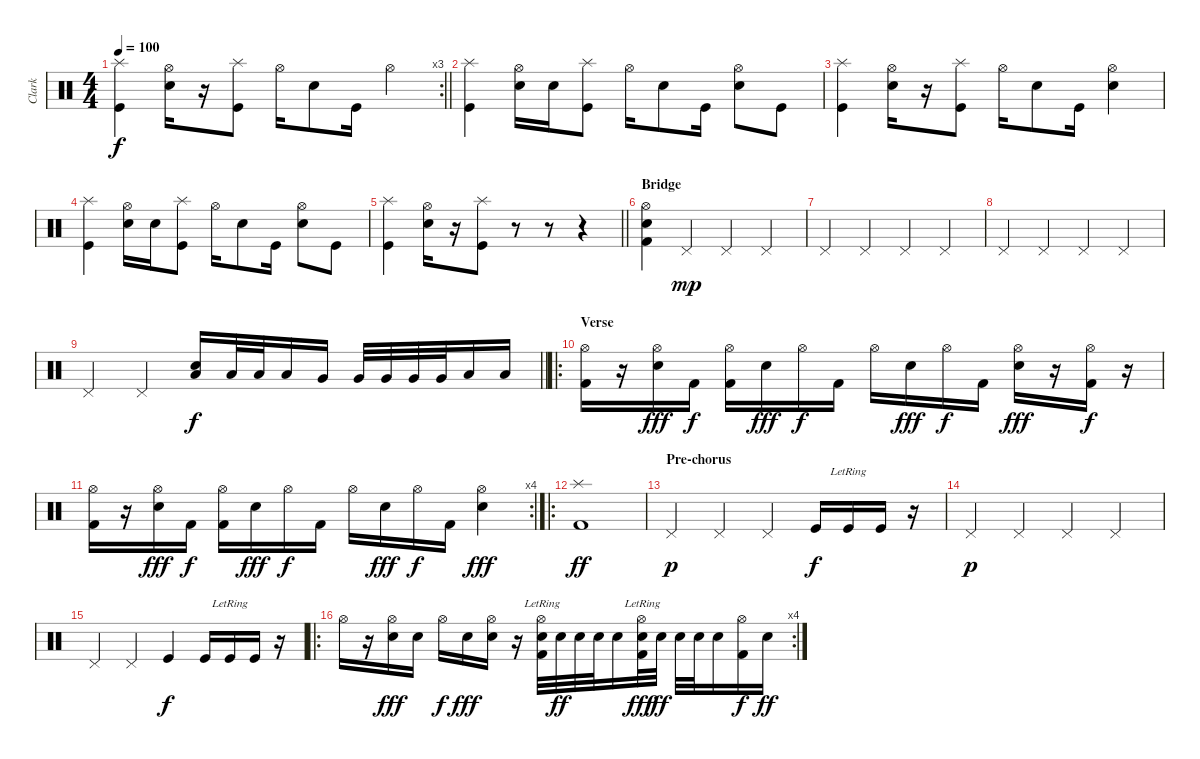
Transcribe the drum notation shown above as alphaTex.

\track ("Clark" "Clark") {instrument percussion}
\staff {score}
\articulation defaults
\rc 3
\ts (4 4)
\tempo 100
\clef neutral
\barLineRight lightlight
\ks c
("Splash (hit)" "Kick (hit)").4{dy f} ("Hi-Hat (open)" "Electric Snare (hit)").16 r.16 ("Splash (hit)" "Kick (hit)").8 "Hi-Hat (open)".16 "Electric Snare (hit)".8 "Kick (hit)".16 "Hi-Hat (open)".4 |
("Splash (hit)" "Kick (hit)").4 ("Hi-Hat (open)" "Electric Snare (hit)").16 "Electric Snare (hit)".16 ("Splash (hit)" "Kick (hit)").8 "Hi-Hat (open)".16 "Electric Snare (hit)".8 "Kick (hit)".16 ("Hi-Hat (open)" "Electric Snare (hit)").8 "Kick (hit)".8 |
("Splash (hit)" "Kick (hit)").4 ("Hi-Hat (open)" "Electric Snare (hit)").16 r.16 ("Splash (hit)" "Kick (hit)").8 "Hi-Hat (open)".16 "Electric Snare (hit)".8 "Kick (hit)".16 ("Hi-Hat (open)" "Electric Snare (hit)").4 |
("Splash (hit)" "Kick (hit)").4 ("Hi-Hat (open)" "Electric Snare (hit)").16 "Electric Snare (hit)".16 ("Splash (hit)" "Kick (hit)").8 "Hi-Hat (open)".16 "Electric Snare (hit)".8 "Kick (hit)".16 ("Hi-Hat (open)" "Electric Snare (hit)").8 "Kick (hit)".8 |
\barLineRight lightlight
("Splash (hit)" "Kick (hit)").4 ("Hi-Hat (open)" "Electric Snare (hit)").16 r.16 ("Splash (hit)" "Kick (hit)").8 r.8 r.8 r.4 |
\section ("" "Bridge")
("Hi-Hat (open)" "Electric Snare (hit)" "Kick (hit) 2").4 "Pedal Hi-Hat (hit)".4{dy mp} "Pedal Hi-Hat (hit)".4 "Pedal Hi-Hat (hit)".4 |
"Pedal Hi-Hat (hit)".4 "Pedal Hi-Hat (hit)".4 "Pedal Hi-Hat (hit)".4 "Pedal Hi-Hat (hit)".4 |
"Pedal Hi-Hat (hit)".4 "Pedal Hi-Hat (hit)".4 "Pedal Hi-Hat (hit)".4 "Pedal Hi-Hat (hit)".4 |
\barLineRight lightlight "Pedal Hi-Hat (hit)".4 "Pedal Hi-Hat (hit)".4
("Electric Snare (hit)" "Low Tom (hit)").16{dy f} "Low Tom (hit)".32 "Low Tom (hit)".32 "Low Tom (hit)".16 "Very Low Tom (hit)".16 "Very Low Tom (hit)".32 "Very Low Tom (hit)".32 "Very Low Tom (hit)".32 "Very Low Tom (hit)".32 "Low Floor Tom (hit)".16 "Low Floor Tom (hit)".16 |
\ro
\section ("" "Verse")
("Hi-Hat (open)" "Kick (hit) 2").16 r.16 ("Hi-Hat (open)" "Electric Snare (hit)").16{dy fff} "Kick (hit) 2".16{dy f} ("Hi-Hat (open)" "Kick (hit) 2").16 "Electric Snare (hit)".16{dy fff} "Hi-Hat (open)".16{dy f} "Kick (hit) 2".16 "Hi-Hat (open)".16 "Electric Snare (hit)".16{dy fff} "Hi-Hat (open)".16{dy f} "Kick (hit) 2".16 ("Hi-Hat (open)" "Electric Snare (hit)").16{dy fff} r.16 ("Hi-Hat (open)" "Kick (hit) 2").16{dy f} r.16 |
\rc 4
("Hi-Hat (open)" "Kick (hit) 2").16 r.16 ("Hi-Hat (open)" "Electric Snare (hit)").16{dy fff} "Kick (hit) 2".16{dy f} ("Hi-Hat (open)" "Kick (hit) 2").16 "Electric Snare (hit)".16{dy fff} "Hi-Hat (open)".16{dy f} "Kick (hit) 2".16 "Hi-Hat (open)".16 "Electric Snare (hit)".16{dy fff} "Hi-Hat (open)".16{dy f} "Kick (hit) 2".16 ("Hi-Hat (open)" "Electric Snare (hit)").4{dy fff} |
\ro
("Splash (hit)" "Kick (hit) 2").1{dy ff} |
\section ("" "Pre-chorus")
"Pedal Hi-Hat (hit)".4{dy p} "Pedal Hi-Hat (hit)".4 "Pedal Hi-Hat (hit)".4 "Kick (hit)".16{dy f} "Kick (hit)"{lr}.16 "Kick (hit)".16 r.16 |
"Pedal Hi-Hat (hit)".4{dy p} "Pedal Hi-Hat (hit)".4 "Pedal Hi-Hat (hit)".4 "Pedal Hi-Hat (hit)".4 |
"Pedal Hi-Hat (hit)".4 "Pedal Hi-Hat (hit)".4 "Kick (hit)".4{dy f} "Kick (hit)".16 "Kick (hit)"{lr}.16 "Kick (hit)".16 r.16 |
\ro
\rc 4 "Hi-Hat (open)".16
r.16 ("Hi-Hat (open)" "Electric Snare (hit)").16{dy fff} "Electric Snare (hit)".16 "Hi-Hat (open)".16{dy f} "Electric Snare (hit)".16{dy fff} ("Hi-Hat (open)" "Electric Snare (hit)").16 r.16 ("Hi-Hat (open)"{lr} "Electric Snare (hit)" "Kick (hit) 2").32 "Electric Snare (hit)".32{dy ff} "Electric Snare (hit)".32 "Electric Snare (hit)".32 "Electric Snare (hit)".16 ("Hi-Hat (open)"{lr} "Electric Snare (hit)" "Kick (hit) 2").32{dy fff} "Electric Snare (hit)".32{dy ff} "Electric Snare (hit)".32 "Electric Snare (hit)".32 "Electric Snare (hit)".16 ("Hi-Hat (open)" "Kick (hit) 2").16{dy f} "Electric Snare (hit)".16{dy ff}
